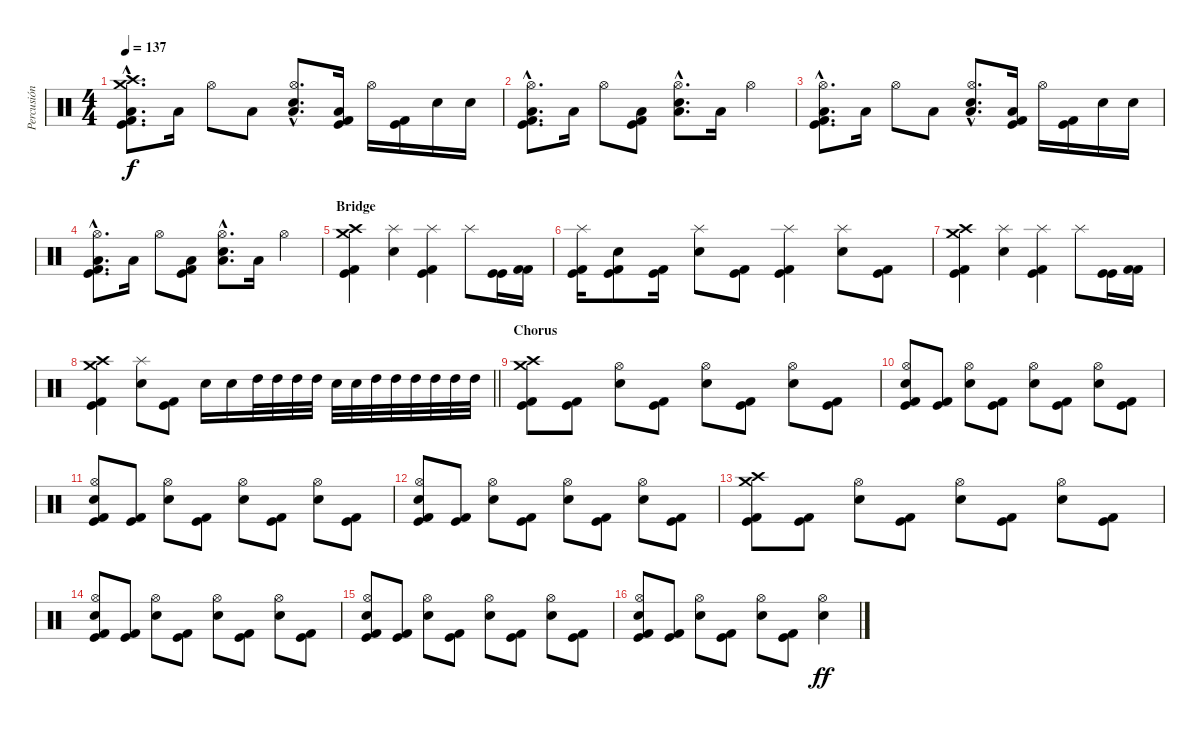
\track ("Percusión" "Percusión") {instrument percussion}
\staff {score}
\articulation defaults
\ts (4 4)
\tempo 137
\clef neutral
\ks c
("Crash medium (hit)"{hac} "Crash high (hit)"{hac} "Low Floor Tom (hit)"{hac} "Kick (hit) 2"{hac} "Kick (hit)"{hac}).8{d dy f} "Low Floor Tom (hit)".16 "Hi-Hat (open)".8 "Low Floor Tom (hit)".8 ("Hi-Hat (open)"{hac} "Electric Snare (hit)"{hac} "Low Floor Tom (hit)"{hac}).8{d} ("Low Floor Tom (hit)" "Kick (hit)" "Kick (hit) 2").16 "Hi-Hat (open)".16 ("Kick (hit) 2" "Kick (hit)").16 "Electric Snare (hit)".16 "Electric Snare (hit)".16 |
("Hi-Hat (open)"{hac} "Low Floor Tom (hit)"{hac} "Kick (hit) 2"{hac} "Kick (hit)"{hac}).8{d} "Low Floor Tom (hit)".16 "Hi-Hat (open)".8 ("Low Floor Tom (hit)" "Kick (hit)" "Kick (hit) 2").8 ("Hi-Hat (open)"{hac} "Electric Snare (hit)"{hac} "Low Floor Tom (hit)"{hac}).8{d} "Low Floor Tom (hit)".16 "Hi-Hat (open)".4 |
("Hi-Hat (open)"{hac} "Low Floor Tom (hit)"{hac} "Kick (hit) 2"{hac} "Kick (hit)"{hac}).8{d} "Low Floor Tom (hit)".16 "Hi-Hat (open)".8 "Low Floor Tom (hit)".8 ("Hi-Hat (open)"{hac} "Electric Snare (hit)"{hac} "Low Floor Tom (hit)"{hac}).8{d} ("Low Floor Tom (hit)" "Kick (hit)" "Kick (hit) 2").16 "Hi-Hat (open)".16 ("Kick (hit) 2" "Kick (hit)").16 "Electric Snare (hit)".16 "Electric Snare (hit)".16 |
("Hi-Hat (open)"{hac} "Low Floor Tom (hit)"{hac} "Kick (hit) 2"{hac} "Kick (hit)"{hac}).8{d} "Low Floor Tom (hit)".16 "Hi-Hat (open)".8 ("Low Floor Tom (hit)" "Kick (hit)" "Kick (hit) 2").8 ("Hi-Hat (open)"{hac} "Electric Snare (hit)"{hac} "Low Floor Tom (hit)"{hac}).8{d} "Low Floor Tom (hit)".16 "Hi-Hat (open)".4 |
\section ("" "Bridge")
("Crash medium (hit)" "Crash high (hit)" "Kick (hit)" "Kick (hit) 2").4 ("Splash (hit)" "Electric Snare (hit)").4 ("Splash (hit)" "Kick (hit) 2" "Kick (hit)").4 "Splash (hit)".8 ("Kick (hit)" "Kick (hit)").16 ("Kick (hit) 2" "Kick (hit) 2").16 |
("Splash (hit)" "Kick (hit)" "Kick (hit) 2").16 ("Electric Snare (hit)" "Kick (hit) 2" "Kick (hit)").8 ("Kick (hit)" "Kick (hit) 2").16 ("Splash (hit)" "Electric Snare (hit)").8 ("Kick (hit)" "Kick (hit) 2").8 ("Splash (hit)" "Kick (hit)" "Kick (hit) 2").4 ("Splash (hit)" "Electric Snare (hit)").8 ("Kick (hit) 2" "Kick (hit)").8 |
("Crash medium (hit)" "Crash high (hit)" "Kick (hit)" "Kick (hit) 2").4 ("Splash (hit)" "Electric Snare (hit)").4 ("Splash (hit)" "Kick (hit) 2" "Kick (hit)").4 "Splash (hit)".8 ("Kick (hit)" "Kick (hit)").16 ("Kick (hit) 2" "Kick (hit) 2").16 |
\barLineRight lightlight
("Crash medium (hit)" "Crash high (hit)" "Kick (hit)" "Kick (hit) 2").4 ("Splash (hit)" "Electric Snare (hit)").8 ("Kick (hit)" "Kick (hit) 2").8 "Electric Snare (hit)".16 "Electric Snare (hit)".16 "High Tom (hit)".32 "High Tom (hit)".32 "High Tom (hit)".32 "High Tom (hit)".32 "Electric Snare (hit)".32 "Electric Snare (hit)".32 "High Tom (hit)".32 "High Tom (hit)".32 "High Tom (hit)".32 "High Tom (hit)".32 "High Tom (hit)".32 "High Tom (hit)".32 |
\section ("" "Chorus")
("Crash medium (hit)" "Crash high (hit)" "Kick (hit) 2" "Kick (hit)").8 ("Kick (hit)" "Kick (hit) 2").8 ("Hi-Hat (open)" "Electric Snare (hit)").8 ("Kick (hit)" "Kick (hit) 2").8 ("Hi-Hat (open)" "Electric Snare (hit)").8 ("Kick (hit)" "Kick (hit) 2").8 ("Hi-Hat (open)" "Electric Snare (hit)").8 ("Kick (hit) 2" "Kick (hit)").8 |
("Hi-Hat (open)" "Electric Snare (hit)" "Kick (hit) 2" "Kick (hit)").8 ("Kick (hit)" "Kick (hit) 2").8 ("Hi-Hat (open)" "Electric Snare (hit)").8 ("Kick (hit)" "Kick (hit) 2").8 ("Hi-Hat (open)" "Electric Snare (hit)").8 ("Kick (hit)" "Kick (hit) 2").8 ("Hi-Hat (open)" "Electric Snare (hit)").8 ("Kick (hit) 2" "Kick (hit)").8 |
("Hi-Hat (open)" "Electric Snare (hit)" "Kick (hit) 2" "Kick (hit)").8 ("Kick (hit)" "Kick (hit) 2").8 ("Hi-Hat (open)" "Electric Snare (hit)").8 ("Kick (hit)" "Kick (hit) 2").8 ("Hi-Hat (open)" "Electric Snare (hit)").8 ("Kick (hit)" "Kick (hit) 2").8 ("Hi-Hat (open)" "Electric Snare (hit)").8 ("Kick (hit) 2" "Kick (hit)").8 |
("Hi-Hat (open)" "Electric Snare (hit)" "Kick (hit) 2" "Kick (hit)").8 ("Kick (hit)" "Kick (hit) 2").8 ("Hi-Hat (open)" "Electric Snare (hit)").8 ("Kick (hit)" "Kick (hit) 2").8 ("Hi-Hat (open)" "Electric Snare (hit)").8 ("Kick (hit)" "Kick (hit) 2").8 ("Hi-Hat (open)" "Electric Snare (hit)").8 ("Kick (hit) 2" "Kick (hit)").8 |
("Crash medium (hit)" "Crash high (hit)" "Kick (hit) 2" "Kick (hit)").8 ("Kick (hit)" "Kick (hit) 2").8 ("Hi-Hat (open)" "Electric Snare (hit)").8 ("Kick (hit)" "Kick (hit) 2").8 ("Hi-Hat (open)" "Electric Snare (hit)").8 ("Kick (hit)" "Kick (hit) 2").8 ("Hi-Hat (open)" "Electric Snare (hit)").8 ("Kick (hit) 2" "Kick (hit)").8 |
("Hi-Hat (open)" "Electric Snare (hit)" "Kick (hit) 2" "Kick (hit)").8 ("Kick (hit)" "Kick (hit) 2").8 ("Hi-Hat (open)" "Electric Snare (hit)").8 ("Kick (hit)" "Kick (hit) 2").8 ("Hi-Hat (open)" "Electric Snare (hit)").8 ("Kick (hit)" "Kick (hit) 2").8 ("Hi-Hat (open)" "Electric Snare (hit)").8 ("Kick (hit) 2" "Kick (hit)").8 |
("Hi-Hat (open)" "Electric Snare (hit)" "Kick (hit) 2" "Kick (hit)").8 ("Kick (hit)" "Kick (hit) 2").8 ("Hi-Hat (open)" "Electric Snare (hit)").8 ("Kick (hit)" "Kick (hit) 2").8 ("Hi-Hat (open)" "Electric Snare (hit)").8 ("Kick (hit)" "Kick (hit) 2").8 ("Hi-Hat (open)" "Electric Snare (hit)").8 ("Kick (hit) 2" "Kick (hit)").8 |
("Hi-Hat (open)" "Electric Snare (hit)" "Kick (hit) 2" "Kick (hit)").8 ("Kick (hit)" "Kick (hit) 2").8 ("Hi-Hat (open)" "Electric Snare (hit)").8 ("Kick (hit)" "Kick (hit) 2").8 ("Hi-Hat (open)" "Electric Snare (hit)").8 ("Kick (hit)" "Kick (hit) 2").8 ("Hi-Hat (open)" "Electric Snare (hit)").4{dy ff}
